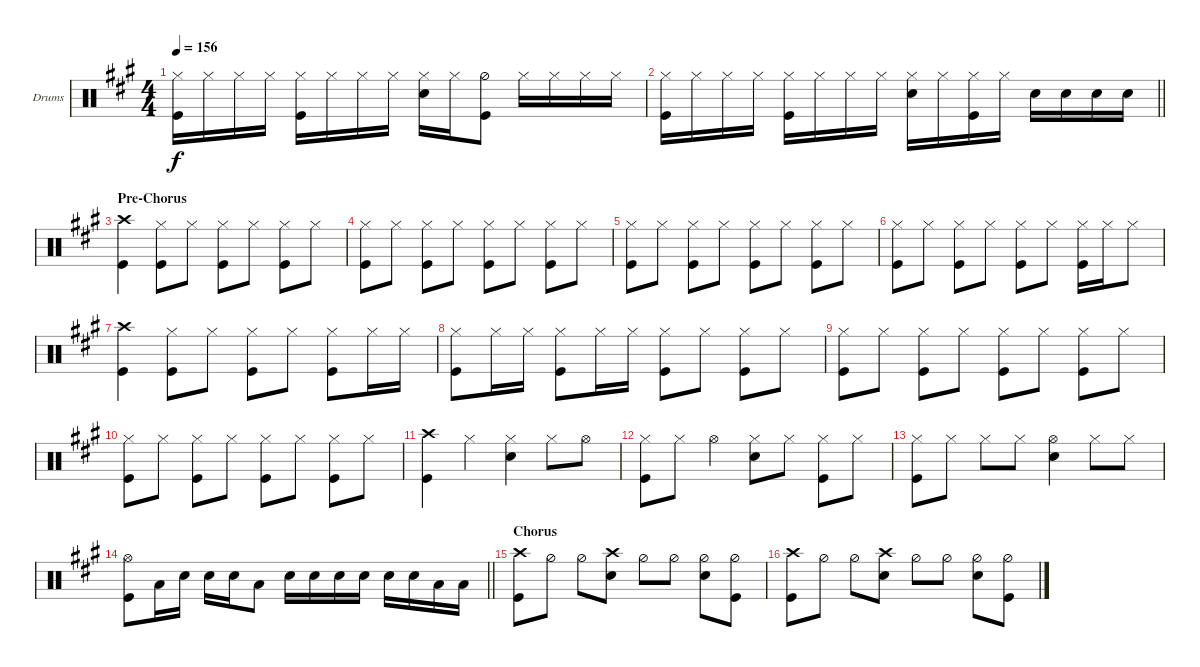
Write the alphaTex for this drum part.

\defaultSystemsLayout 4
\bracketExtendMode groupsimilarinstruments
\firstSystemTrackNameOrientation horizontal
\otherSystemsTrackNameOrientation horizontal
\track ("Drums" "Drums") {instrument percussion}
\staff {score}
\articulation defaults
\ts (4 4)
\tempo 156
\clef neutral
\ks a
("Hi-Hat (closed)" "Kick (hit)").16{dy f} "Hi-Hat (closed)".16 "Hi-Hat (closed)".16 "Hi-Hat (closed)".16 ("Hi-Hat (closed)" "Kick (hit)").16 "Hi-Hat (closed)".16 "Hi-Hat (closed)".16 "Hi-Hat (closed)".16 ("Hi-Hat (closed)" "Snare (hit) 2").16 "Hi-Hat (closed)".16 ("Hi-Hat (half)" "Kick (hit)").8 "Hi-Hat (closed)".16 "Hi-Hat (closed)".16 "Hi-Hat (closed)".16 "Hi-Hat (closed)".16 |
\barLineRight lightlight
("Hi-Hat (closed)" "Kick (hit)").16 "Hi-Hat (closed)".16 "Hi-Hat (closed)".16 "Hi-Hat (closed)".16 ("Hi-Hat (closed)" "Kick (hit)").16 "Hi-Hat (closed)".16 "Hi-Hat (closed)".16 "Hi-Hat (closed)".16 ("Hi-Hat (closed)" "Snare (hit) 2").16 "Hi-Hat (closed)".16 ("Hi-Hat (closed)" "Kick (hit)").16 "Hi-Hat (closed)".16 "Snare (hit) 2".16 "Snare (hit) 2".16 "Snare (hit) 2".16 "Snare (hit) 2".16 |
\section ("" "Pre-Chorus")
("Kick (hit)" "Crash high (hit)").4 ("Hi-Hat (closed)" "Kick (hit)").8 "Hi-Hat (closed)".8 ("Hi-Hat (closed)" "Kick (hit)").8 "Hi-Hat (closed)".8 ("Hi-Hat (closed)" "Kick (hit)").8 "Hi-Hat (closed)".8 |
("Hi-Hat (closed)" "Kick (hit)").8 "Hi-Hat (closed)".8 ("Hi-Hat (closed)" "Kick (hit)").8 "Hi-Hat (closed)".8 ("Hi-Hat (closed)" "Kick (hit)").8 "Hi-Hat (closed)".8 ("Hi-Hat (closed)" "Kick (hit)").8 "Hi-Hat (closed)".8 |
("Hi-Hat (closed)" "Kick (hit)").8 "Hi-Hat (closed)".8 ("Hi-Hat (closed)" "Kick (hit)").8 "Hi-Hat (closed)".8 ("Hi-Hat (closed)" "Kick (hit)").8 "Hi-Hat (closed)".8 ("Hi-Hat (closed)" "Kick (hit)").8 "Hi-Hat (closed)".8 |
("Hi-Hat (closed)" "Kick (hit)").8 "Hi-Hat (closed)".8 ("Hi-Hat (closed)" "Kick (hit)").8 "Hi-Hat (closed)".8 ("Hi-Hat (closed)" "Kick (hit)").8 "Hi-Hat (closed)".8 ("Hi-Hat (closed)" "Kick (hit)").16 "Hi-Hat (closed)".16 "Hi-Hat (closed)".8 |
("Kick (hit)" "Crash high (hit)").4 ("Hi-Hat (closed)" "Kick (hit)").8 "Hi-Hat (closed)".8 ("Hi-Hat (closed)" "Kick (hit)").8 "Hi-Hat (closed)".8 ("Hi-Hat (closed)" "Kick (hit)").8 "Hi-Hat (closed)".16 "Hi-Hat (closed)".16 |
("Hi-Hat (closed)" "Kick (hit)").8 "Hi-Hat (closed)".16 "Hi-Hat (closed)".16 ("Hi-Hat (closed)" "Kick (hit)").8 "Hi-Hat (closed)".16 "Hi-Hat (closed)".16 ("Hi-Hat (closed)" "Kick (hit)").8 "Hi-Hat (closed)".8 ("Hi-Hat (closed)" "Kick (hit)").8 "Hi-Hat (closed)".8 |
("Hi-Hat (closed)" "Kick (hit)").8 "Hi-Hat (closed)".8 ("Hi-Hat (closed)" "Kick (hit)").8 "Hi-Hat (closed)".8 ("Hi-Hat (closed)" "Kick (hit)").8 "Hi-Hat (closed)".8 ("Hi-Hat (closed)" "Kick (hit)").8 "Hi-Hat (closed)".8 |
("Hi-Hat (closed)" "Kick (hit)").8 "Hi-Hat (closed)".8 ("Hi-Hat (closed)" "Kick (hit)").8 "Hi-Hat (closed)".8 ("Hi-Hat (closed)" "Kick (hit)").8 "Hi-Hat (closed)".8 ("Hi-Hat (closed)" "Kick (hit)").8 "Hi-Hat (closed)".8 |
("Kick (hit)" "Crash high (hit)").4 "Hi-Hat (closed)".4 ("Hi-Hat (closed)" "Snare (hit) 2").4 "Hi-Hat (closed)".8 "Hi-Hat (open)".8 |
("Kick (hit)" "Hi-Hat (closed)").8 "Hi-Hat (closed)".8 "Hi-Hat (open)".4 ("Hi-Hat (closed)" "Snare (hit) 2").8 "Hi-Hat (closed)".8 ("Hi-Hat (closed)" "Kick (hit)").8 "Hi-Hat (closed)".8 |
("Kick (hit)" "Hi-Hat (closed)").8 "Hi-Hat (closed)".8 "Hi-Hat (closed)".8 "Hi-Hat (closed)".8 ("Hi-Hat (open)" "Snare (hit) 2").4 "Hi-Hat (closed)".8 "Hi-Hat (closed)".8 |
\barLineRight lightlight
("Hi-Hat (open)" "Kick (hit)").8 "Low Tom (hit)".16 "Snare (hit) 2".16 "Snare (hit) 2".16 "Snare (hit) 2".16 "Low Tom (hit)".8 "Snare (hit) 2".16 "Snare (hit) 2".16 "Snare (hit) 2".16 "Snare (hit) 2".16 "Snare (hit) 2".16 "Snare (hit) 2".16 "Low Tom (hit)".16 "Low Tom (hit)".16 |
\section ("" "Chorus")
("Kick (hit)" "Crash high (hit)").8 "Hi-Hat (half)".8 "Hi-Hat (half)".8 ("Snare (hit) 2" "Crash high (hit)").8 "Hi-Hat (half)".8 "Hi-Hat (half)".8 ("Snare (hit) 2" "Hi-Hat (half)").8 ("Hi-Hat (half)" "Kick (hit)").8 |
("Kick (hit)" "Crash high (hit)").8 "Hi-Hat (half)".8 "Hi-Hat (half)".8 ("Snare (hit) 2" "Crash high (hit)").8 "Hi-Hat (half)".8 "Hi-Hat (half)".8 ("Snare (hit) 2" "Hi-Hat (half)").8 ("Hi-Hat (half)" "Kick (hit)").8
